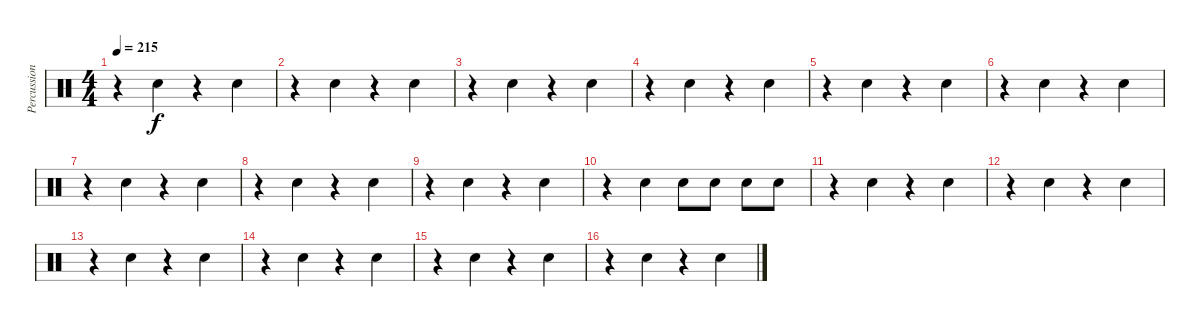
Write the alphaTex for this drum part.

\track ("Percussion" "Percussion") {instrument percussion}
\staff {score}
\articulation defaults
\ts (4 4)
\tempo 215
\clef neutral
\ks c
r.4{dy f} "Snare (hit) 2".4 r.4 "Snare (hit) 2".4 |
r.4 "Snare (hit) 2".4 r.4 "Snare (hit) 2".4 |
r.4 "Snare (hit) 2".4 r.4 "Snare (hit) 2".4 |
r.4 "Snare (hit) 2".4 r.4 "Snare (hit) 2".4 |
r.4 "Snare (hit) 2".4 r.4 "Snare (hit) 2".4 |
r.4 "Snare (hit) 2".4 r.4 "Snare (hit) 2".4 |
r.4 "Snare (hit) 2".4 r.4 "Snare (hit) 2".4 |
r.4 "Snare (hit) 2".4 r.4 "Snare (hit) 2".4 |
r.4 "Snare (hit) 2".4 r.4 "Snare (hit) 2".4 |
r.4 "Snare (hit) 2".4 "Snare (hit) 2".8 "Snare (hit) 2".8 "Snare (hit) 2".8 "Snare (hit) 2".8 |
r.4 "Snare (hit) 2".4 r.4 "Snare (hit) 2".4 |
r.4 "Snare (hit) 2".4 r.4 "Snare (hit) 2".4 |
r.4 "Snare (hit) 2".4 r.4 "Snare (hit) 2".4 |
r.4 "Snare (hit) 2".4 r.4 "Snare (hit) 2".4 |
r.4 "Snare (hit) 2".4 r.4 "Snare (hit) 2".4 |
r.4 "Snare (hit) 2".4 r.4 "Snare (hit) 2".4
